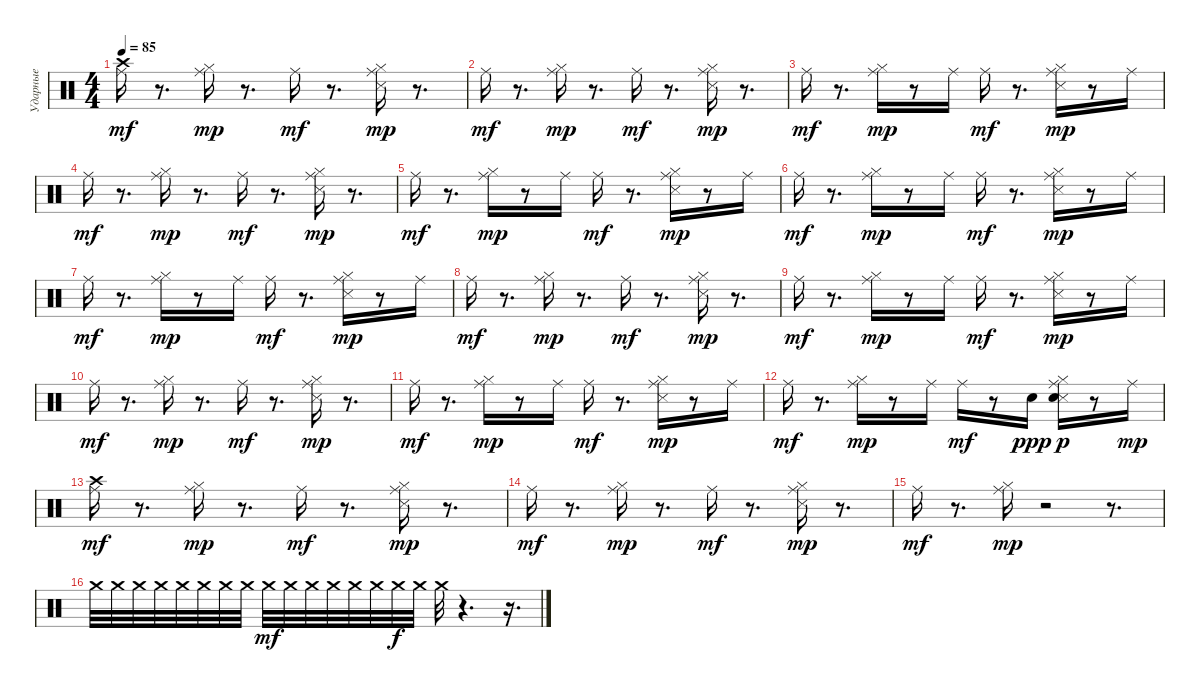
\track ("Ударные" "Ударные") {instrument percussion}
\staff {score}
\articulation defaults
\ts (4 4)
\tempo 85
\clef neutral
\ks c
("Crash high (hit)" "Ride (middle)").16{dy mf} r.8{d} ("Ride (middle)" "Hi-Hat (closed)").16{dy mp} r.8{d} "Ride (middle)".16{dy mf} r.8{d} ("Ride (middle)" "Snare (side stick) 3" "Hi-Hat (closed)").16{dy mp} r.8{d} |
"Ride (middle)".16{dy mf} r.8{d} ("Ride (middle)" "Hi-Hat (closed)").16{dy mp} r.8{d} "Ride (middle)".16{dy mf} r.8{d} ("Ride (middle)" "Snare (side stick) 3" "Hi-Hat (closed)").16{dy mp} r.8{d} |
"Ride (middle)".16{dy mf} r.8{d} ("Ride (middle)" "Hi-Hat (closed)").16{dy mp} r.8 "Ride (middle)".16 "Ride (middle)".16{dy mf} r.8{d} ("Ride (middle)" "Snare (side stick) 3" "Hi-Hat (closed)").16{dy mp} r.8 "Ride (middle)".16 |
"Ride (middle)".16{dy mf} r.8{d} ("Ride (middle)" "Hi-Hat (closed)").16{dy mp} r.8{d} "Ride (middle)".16{dy mf} r.8{d} ("Ride (middle)" "Snare (side stick) 3" "Hi-Hat (closed)").16{dy mp} r.8{d} |
"Ride (middle)".16{dy mf} r.8{d} ("Ride (middle)" "Hi-Hat (closed)").16{dy mp} r.8 "Ride (middle)".16 "Ride (middle)".16{dy mf} r.8{d} ("Ride (middle)" "Snare (side stick) 3" "Hi-Hat (closed)").16{dy mp} r.8 "Ride (middle)".16 |
"Ride (middle)".16{dy mf} r.8{d} ("Ride (middle)" "Hi-Hat (closed)").16{dy mp} r.8 "Ride (middle)".16 "Ride (middle)".16{dy mf} r.8{d} ("Ride (middle)" "Snare (side stick) 3" "Hi-Hat (closed)").16{dy mp} r.8 "Ride (middle)".16 |
"Ride (middle)".16{dy mf} r.8{d} ("Ride (middle)" "Hi-Hat (closed)").16{dy mp} r.8 "Ride (middle)".16 "Ride (middle)".16{dy mf} r.8{d} ("Ride (middle)" "Snare (side stick) 3" "Hi-Hat (closed)").16{dy mp} r.8 "Ride (middle)".16 |
"Ride (middle)".16{dy mf} r.8{d} ("Ride (middle)" "Hi-Hat (closed)").16{dy mp} r.8{d} "Ride (middle)".16{dy mf} r.8{d} ("Ride (middle)" "Snare (side stick) 3" "Hi-Hat (closed)").16{dy mp} r.8{d} |
"Ride (middle)".16{dy mf} r.8{d} ("Ride (middle)" "Hi-Hat (closed)").16{dy mp} r.8 "Ride (middle)".16 "Ride (middle)".16{dy mf} r.8{d} ("Ride (middle)" "Snare (side stick) 3" "Hi-Hat (closed)").16{dy mp} r.8 "Ride (middle)".16 |
"Ride (middle)".16{dy mf} r.8{d} ("Ride (middle)" "Hi-Hat (closed)").16{dy mp} r.8{d} "Ride (middle)".16{dy mf} r.8{d} ("Ride (middle)" "Snare (side stick) 3" "Hi-Hat (closed)").16{dy mp} r.8{d} |
"Ride (middle)".16{dy mf} r.8{d} ("Ride (middle)" "Hi-Hat (closed)").16{dy mp} r.8 "Ride (middle)".16 "Ride (middle)".16{dy mf} r.8{d} ("Ride (middle)" "Snare (side stick) 3" "Hi-Hat (closed)").16{dy mp} r.8 "Ride (middle)".16 |
"Ride (middle)".16{dy mf} r.8{d} ("Ride (middle)" "Hi-Hat (closed)").16{dy mp} r.8 "Ride (middle)".16 "Ride (middle)".16{dy mf} r.8 "Snare (hit) 2".16{dy ppp} ("Ride (middle)" "Snare (side stick) 3" "Hi-Hat (closed)" "Snare (hit) 2").16{dy p} r.8 "Ride (middle)".16{dy mp} |
("Crash high (hit)" "Ride (middle)").16{dy mf} r.8{d} ("Ride (middle)" "Hi-Hat (closed)").16{dy mp} r.8{d} "Ride (middle)".16{dy mf} r.8{d} ("Ride (middle)" "Snare (side stick) 3" "Hi-Hat (closed)").16{dy mp} r.8{d} |
"Ride (middle)".16{dy mf} r.8{d} ("Ride (middle)" "Hi-Hat (closed)").16{dy mp} r.8{d} "Ride (middle)".16{dy mf} r.8{d} ("Ride (middle)" "Snare (side stick) 3" "Hi-Hat (closed)").16{dy mp} r.8{d} |
"Ride (middle)".16{dy mf} r.8{d} ("Ride (middle)" "Hi-Hat (closed)").16{dy mp} r.2 r.8{d} |
"Crash medium (hit)".32 "Crash medium (hit)".32 "Crash medium (hit)".32 "Crash medium (hit)".32 "Crash medium (hit)".32 "Crash medium (hit)".32 "Crash medium (hit)".32 "Crash medium (hit)".32 "Crash medium (hit)".32{dy mf} "Crash medium (hit)".32 "Crash medium (hit)".32 "Crash medium (hit)".32 "Crash medium (hit)".32 "Crash medium (hit)".32 "Crash medium (hit)".32{dy f} "Crash medium (hit)".32 "Crash medium (hit)".32 r.4{d} r.16{d}
